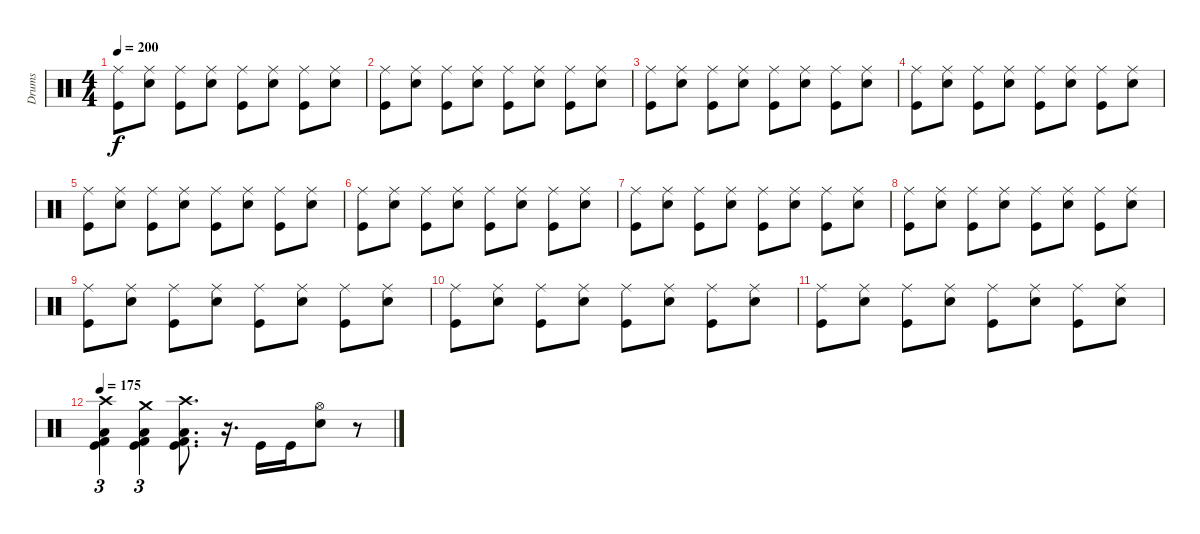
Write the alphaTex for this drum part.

\track ("Drums" "Drums") {instrument percussion}
\staff {score}
\articulation defaults
\ts (4 4)
\tempo 200
\clef neutral
\ks c
("Ride (middle)" "Kick (hit)").8{dy f} ("Ride (middle)" "Electric Snare (hit)").8 ("Ride (middle)" "Kick (hit)").8 ("Ride (middle)" "Electric Snare (hit)").8 ("Ride (middle)" "Kick (hit)").8 ("Ride (middle)" "Electric Snare (hit)").8 ("Ride (middle)" "Kick (hit)").8 ("Ride (middle)" "Electric Snare (hit)").8 |
("Ride (middle)" "Kick (hit)").8 ("Ride (middle)" "Electric Snare (hit)").8 ("Ride (middle)" "Kick (hit)").8 ("Ride (middle)" "Electric Snare (hit)").8 ("Ride (middle)" "Kick (hit)").8 ("Ride (middle)" "Electric Snare (hit)").8 ("Ride (middle)" "Kick (hit)").8 ("Ride (middle)" "Electric Snare (hit)").8 |
("Ride (middle)" "Kick (hit)").8 ("Ride (middle)" "Electric Snare (hit)").8 ("Ride (middle)" "Kick (hit)").8 ("Ride (middle)" "Electric Snare (hit)").8 ("Ride (middle)" "Kick (hit)").8 ("Ride (middle)" "Electric Snare (hit)").8 ("Ride (middle)" "Kick (hit)").8 ("Ride (middle)" "Electric Snare (hit)").8 |
("Ride (middle)" "Kick (hit)").8 ("Ride (middle)" "Electric Snare (hit)").8 ("Ride (middle)" "Kick (hit)").8 ("Ride (middle)" "Electric Snare (hit)").8 ("Ride (middle)" "Kick (hit)").8 ("Ride (middle)" "Electric Snare (hit)").8 ("Ride (middle)" "Kick (hit)").8 ("Ride (middle)" "Electric Snare (hit)").8 |
("Ride (middle)" "Kick (hit)").8 ("Ride (middle)" "Electric Snare (hit)").8 ("Ride (middle)" "Kick (hit)").8 ("Ride (middle)" "Electric Snare (hit)").8 ("Ride (middle)" "Kick (hit)").8 ("Ride (middle)" "Electric Snare (hit)").8 ("Ride (middle)" "Kick (hit)").8 ("Ride (middle)" "Electric Snare (hit)").8 |
("Ride (middle)" "Kick (hit)").8 ("Ride (middle)" "Electric Snare (hit)").8 ("Ride (middle)" "Kick (hit)").8 ("Ride (middle)" "Electric Snare (hit)").8 ("Ride (middle)" "Kick (hit)").8 ("Ride (middle)" "Electric Snare (hit)").8 ("Ride (middle)" "Kick (hit)").8 ("Ride (middle)" "Electric Snare (hit)").8 |
("Ride (middle)" "Kick (hit)").8 ("Ride (middle)" "Electric Snare (hit)").8 ("Ride (middle)" "Kick (hit)").8 ("Ride (middle)" "Electric Snare (hit)").8 ("Ride (middle)" "Kick (hit)").8 ("Ride (middle)" "Electric Snare (hit)").8 ("Ride (middle)" "Kick (hit)").8 ("Ride (middle)" "Electric Snare (hit)").8 |
("Ride (middle)" "Kick (hit)").8 ("Ride (middle)" "Electric Snare (hit)").8 ("Ride (middle)" "Kick (hit)").8 ("Ride (middle)" "Electric Snare (hit)").8 ("Ride (middle)" "Kick (hit)").8 ("Ride (middle)" "Electric Snare (hit)").8 ("Ride (middle)" "Kick (hit)").8 ("Ride (middle)" "Electric Snare (hit)").8 |
("Ride (middle)" "Kick (hit)").8 ("Ride (middle)" "Electric Snare (hit)").8 ("Ride (middle)" "Kick (hit)").8 ("Ride (middle)" "Electric Snare (hit)").8 ("Ride (middle)" "Kick (hit)").8 ("Ride (middle)" "Electric Snare (hit)").8 ("Ride (middle)" "Kick (hit)").8 ("Ride (middle)" "Electric Snare (hit)").8 |
("Ride (middle)" "Kick (hit)").8 ("Ride (middle)" "Electric Snare (hit)").8 ("Ride (middle)" "Kick (hit)").8 ("Ride (middle)" "Electric Snare (hit)").8 ("Ride (middle)" "Kick (hit)").8 ("Ride (middle)" "Electric Snare (hit)").8 ("Ride (middle)" "Kick (hit)").8 ("Ride (middle)" "Electric Snare (hit)").8 |
("Ride (middle)" "Kick (hit)").8 ("Ride (middle)" "Electric Snare (hit)").8 ("Ride (middle)" "Kick (hit)").8 ("Ride (middle)" "Electric Snare (hit)").8 ("Ride (middle)" "Kick (hit)").8 ("Ride (middle)" "Electric Snare (hit)").8 ("Ride (middle)" "Kick (hit)").8 ("Ride (middle)" "Electric Snare (hit)").8 |
\tempo 175
("Low Floor Tom (hit)" "Kick (hit) 2" "Kick (hit)" "Crash high (hit)").4{tu (3 2)} ("Low Floor Tom (hit)" "Kick (hit) 2" "Kick (hit)" "Crash medium (hit)").4{tu (3 2)} ("Low Floor Tom (hit)" "Kick (hit) 2" "Kick (hit)" "Crash high (hit)").8{d} r.16{d} "Kick (hit)".16 "Kick (hit)".16 ("Hi-Hat (open)" "Electric Snare (hit)").8 r.8
